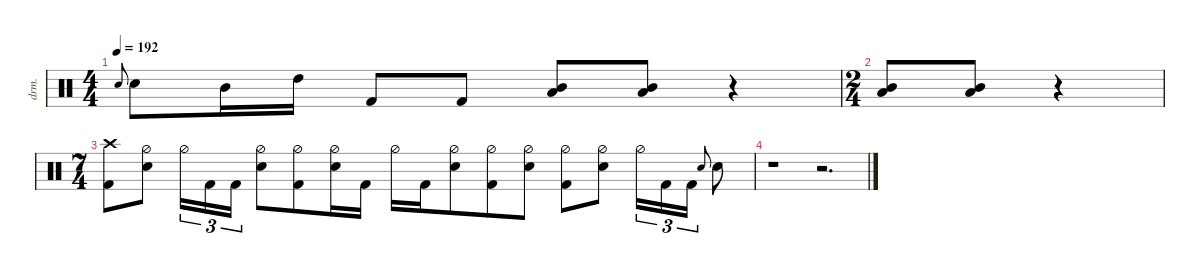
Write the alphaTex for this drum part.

\defaultSystemsLayout 4
\hideDynamics
\bracketExtendMode nobrackets
\otherSystemsTrackNameOrientation horizontal
\track ("Drumkit" "drm.") {defaultSystemsLayout 4 multiBarRest instrument percussion}
\staff
\articulation defaults
\ts (4 4)
\beaming (8 2 2 2 2)
\tempo 192
\clef neutral
\ks c "Snare (hit) 2".8{gr onbeat dy f beam Up} "Snare (hit) 2".8{beam Down} "Mid Tom (hit)".16{beam Down} "High Tom (hit)".16{beam Down} "Kick (hit) 2".8{beam Up} "Kick (hit) 2".8{beam Up}
("Mid Tom (hit)" "Low Tom (hit)").8{dy fff beam Up} ("Mid Tom (hit)" "Low Tom (hit)").8{beam Up} r.4{beam Up} |
\ts (2 4)
\beaming (8 2 2)
("Mid Tom (hit)" "Low Tom (hit)").8{beam Up} ("Mid Tom (hit)" "Low Tom (hit)").8{beam Up} r.4{beam Up} |
\ts (7 4)
\beaming (8 6 4 4)
("Crash high (hit)" "Kick (hit) 2").8{dy f beam Down} ("Hi-Hat (half)" "Snare (hit) 2").8{beam Down} "Hi-Hat (half)".16{tu (3 2) beam Down} "Kick (hit) 2".16{tu (3 2) beam Down} "Kick (hit) 2".16{tu (3 2) beam Down} ("Hi-Hat (half)" "Snare (hit) 2").8{beam Down} ("Hi-Hat (half)" "Kick (hit) 2").8{beam Down} ("Hi-Hat (half)" "Snare (hit) 2").16{beam Down} "Kick (hit) 2".16{beam Down} "Hi-Hat (half)".16{beam Down} "Kick (hit) 2".16{beam Down} ("Hi-Hat (half)" "Snare (hit) 2").8{beam Down} ("Hi-Hat (half)" "Kick (hit) 2").8{beam Down} ("Hi-Hat (half)" "Snare (hit) 2").8{beam Down} ("Hi-Hat (half)" "Kick (hit) 2").8{beam Down} ("Hi-Hat (half)" "Snare (hit) 2").8{beam Down} "Hi-Hat (half)".16{tu (3 2) beam Down} "Kick (hit) 2".16{tu (3 2) beam Down} "Kick (hit) 2".16{tu (3 2) beam Down} "Snare (hit) 2".8{gr onbeat beam Up} "Snare (hit) 2".8{beam Down} |
r.1{beam Down} r.2{d beam Down}
